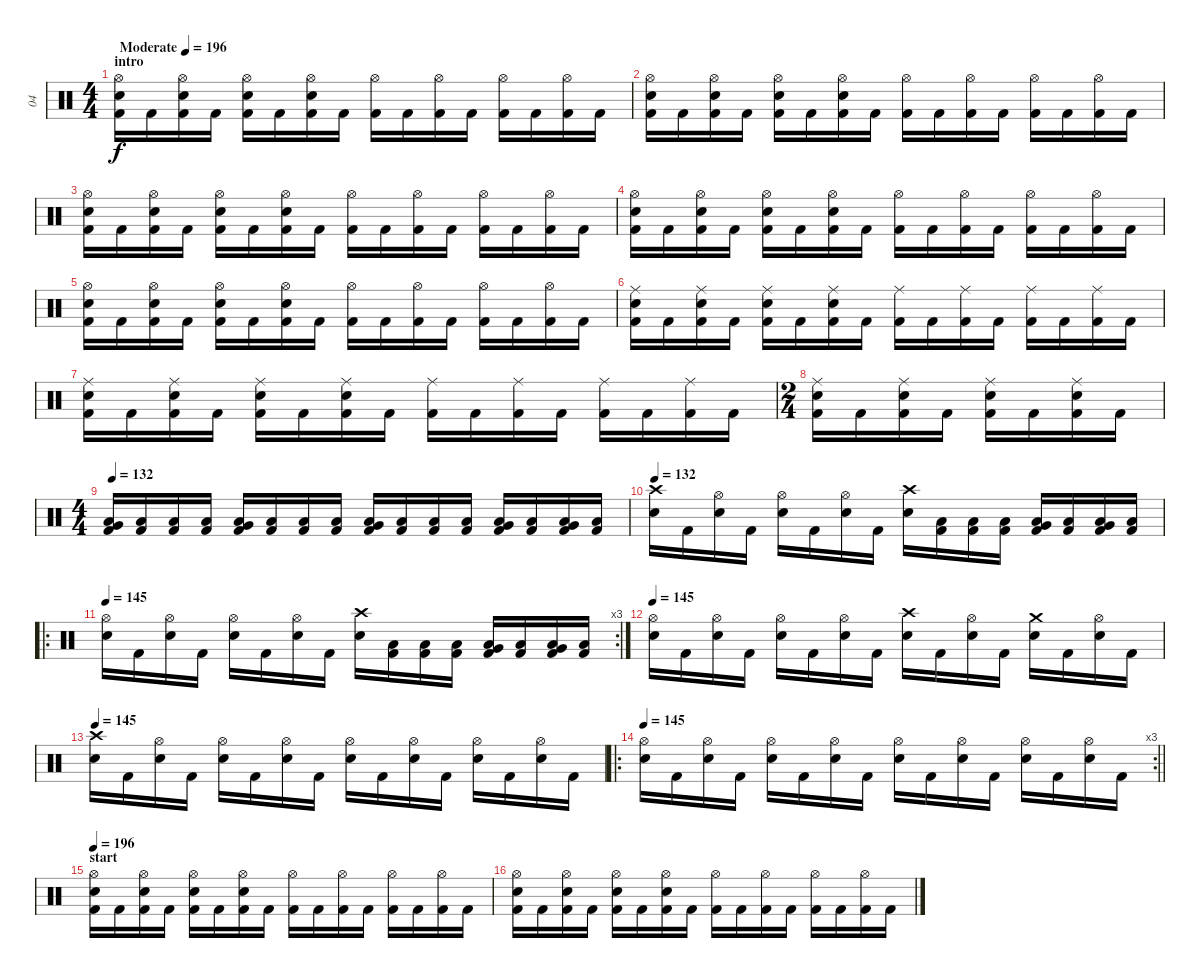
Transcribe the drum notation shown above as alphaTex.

\track ("04" "04") {instrument percussion}
\staff {score}
\articulation defaults
\ts (4 4)
\section ("" "intro")
\tempo (196 "Moderate")
\clef neutral
\ks c
("Hi-Hat (open)" "Kick (hit) 2" "Electric Snare (hit)").16{dy f} "Kick (hit) 2".16 ("Hi-Hat (open)" "Kick (hit) 2" "Electric Snare (hit)").16 "Kick (hit) 2".16 ("Hi-Hat (open)" "Kick (hit) 2" "Electric Snare (hit)").16 "Kick (hit) 2".16 ("Hi-Hat (open)" "Kick (hit) 2" "Electric Snare (hit)").16 "Kick (hit) 2".16 ("Hi-Hat (open)" "Kick (hit) 2").16 "Kick (hit) 2".16 ("Hi-Hat (open)" "Kick (hit) 2").16 "Kick (hit) 2".16 ("Hi-Hat (open)" "Kick (hit) 2").16 "Kick (hit) 2".16 ("Hi-Hat (open)" "Kick (hit) 2").16 "Kick (hit) 2".16 |
("Hi-Hat (open)" "Kick (hit) 2" "Electric Snare (hit)").16 "Kick (hit) 2".16 ("Hi-Hat (open)" "Kick (hit) 2" "Electric Snare (hit)").16 "Kick (hit) 2".16 ("Hi-Hat (open)" "Kick (hit) 2" "Electric Snare (hit)").16 "Kick (hit) 2".16 ("Hi-Hat (open)" "Kick (hit) 2" "Electric Snare (hit)").16 "Kick (hit) 2".16 ("Hi-Hat (open)" "Kick (hit) 2").16 "Kick (hit) 2".16 ("Hi-Hat (open)" "Kick (hit) 2").16 "Kick (hit) 2".16 ("Hi-Hat (open)" "Kick (hit) 2").16 "Kick (hit) 2".16 ("Hi-Hat (open)" "Kick (hit) 2").16 "Kick (hit) 2".16 |
("Hi-Hat (open)" "Kick (hit) 2" "Electric Snare (hit)").16 "Kick (hit) 2".16 ("Hi-Hat (open)" "Kick (hit) 2" "Electric Snare (hit)").16 "Kick (hit) 2".16 ("Hi-Hat (open)" "Kick (hit) 2" "Electric Snare (hit)").16 "Kick (hit) 2".16 ("Hi-Hat (open)" "Kick (hit) 2" "Electric Snare (hit)").16 "Kick (hit) 2".16 ("Hi-Hat (open)" "Kick (hit) 2").16 "Kick (hit) 2".16 ("Hi-Hat (open)" "Kick (hit) 2").16 "Kick (hit) 2".16 ("Hi-Hat (open)" "Kick (hit) 2").16 "Kick (hit) 2".16 ("Hi-Hat (open)" "Kick (hit) 2").16 "Kick (hit) 2".16 |
("Hi-Hat (open)" "Kick (hit) 2" "Electric Snare (hit)").16 "Kick (hit) 2".16 ("Hi-Hat (open)" "Kick (hit) 2" "Electric Snare (hit)").16 "Kick (hit) 2".16 ("Hi-Hat (open)" "Kick (hit) 2" "Electric Snare (hit)").16 "Kick (hit) 2".16 ("Hi-Hat (open)" "Kick (hit) 2" "Electric Snare (hit)").16 "Kick (hit) 2".16 ("Hi-Hat (open)" "Kick (hit) 2").16 "Kick (hit) 2".16 ("Hi-Hat (open)" "Kick (hit) 2").16 "Kick (hit) 2".16 ("Hi-Hat (open)" "Kick (hit) 2").16 "Kick (hit) 2".16 ("Hi-Hat (open)" "Kick (hit) 2").16 "Kick (hit) 2".16 |
("Hi-Hat (open)" "Kick (hit) 2" "Electric Snare (hit)").16 "Kick (hit) 2".16 ("Hi-Hat (open)" "Kick (hit) 2" "Electric Snare (hit)").16 "Kick (hit) 2".16 ("Hi-Hat (open)" "Kick (hit) 2" "Electric Snare (hit)").16 "Kick (hit) 2".16 ("Hi-Hat (open)" "Kick (hit) 2" "Electric Snare (hit)").16 "Kick (hit) 2".16 ("Hi-Hat (open)" "Kick (hit) 2").16 "Kick (hit) 2".16 ("Hi-Hat (open)" "Kick (hit) 2").16 "Kick (hit) 2".16 ("Hi-Hat (open)" "Kick (hit) 2").16 "Kick (hit) 2".16 ("Hi-Hat (open)" "Kick (hit) 2").16 "Kick (hit) 2".16 |
("Ride (middle)" "Kick (hit) 2" "Electric Snare (hit)").16 "Kick (hit) 2".16 ("Ride (middle)" "Kick (hit) 2" "Electric Snare (hit)").16 "Kick (hit) 2".16 ("Ride (middle)" "Kick (hit) 2" "Electric Snare (hit)").16 "Kick (hit) 2".16 ("Ride (middle)" "Kick (hit) 2" "Electric Snare (hit)").16 "Kick (hit) 2".16 ("Ride (middle)" "Kick (hit) 2").16 "Kick (hit) 2".16 ("Ride (middle)" "Kick (hit) 2").16 "Kick (hit) 2".16 ("Ride (middle)" "Kick (hit) 2").16 "Kick (hit) 2".16 ("Ride (middle)" "Kick (hit) 2").16 "Kick (hit) 2".16 |
("Ride (middle)" "Kick (hit) 2" "Electric Snare (hit)").16 "Kick (hit) 2".16 ("Ride (middle)" "Kick (hit) 2" "Electric Snare (hit)").16 "Kick (hit) 2".16 ("Ride (middle)" "Kick (hit) 2" "Electric Snare (hit)").16 "Kick (hit) 2".16 ("Ride (middle)" "Kick (hit) 2" "Electric Snare (hit)").16 "Kick (hit) 2".16 ("Ride (middle)" "Kick (hit) 2").16 "Kick (hit) 2".16 ("Ride (middle)" "Kick (hit) 2").16 "Kick (hit) 2".16 ("Ride (middle)" "Kick (hit) 2").16 "Kick (hit) 2".16 ("Ride (middle)" "Kick (hit) 2").16 "Kick (hit) 2".16 |
\ts (2 4)
("Ride (middle)" "Kick (hit) 2" "Electric Snare (hit)").16 "Kick (hit) 2".16 ("Ride (middle)" "Kick (hit) 2" "Electric Snare (hit)").16 "Kick (hit) 2".16 ("Ride (middle)" "Kick (hit) 2" "Electric Snare (hit)").16 "Kick (hit) 2".16 ("Ride (middle)" "Kick (hit) 2" "Electric Snare (hit)").16 "Kick (hit) 2".16 |
\ts (4 4)
\tempo 145
\tempo 132
("Very Low Tom (hit)" "Low Tom (hit)" "Kick (hit) 2").16 ("Low Tom (hit)" "Kick (hit) 2").16 ("Low Tom (hit)" "Kick (hit) 2").16 ("Low Tom (hit)" "Kick (hit) 2").16 ("Very Low Tom (hit)" "Low Tom (hit)" "Kick (hit) 2").16 ("Low Tom (hit)" "Kick (hit) 2").16 ("Low Tom (hit)" "Kick (hit) 2").16 ("Low Tom (hit)" "Kick (hit) 2").16 ("Very Low Tom (hit)" "Low Tom (hit)" "Kick (hit) 2").16 ("Low Tom (hit)" "Kick (hit) 2").16 ("Low Tom (hit)" "Kick (hit) 2").16 ("Low Tom (hit)" "Kick (hit) 2").16 ("Very Low Tom (hit)" "Low Tom (hit)" "Kick (hit) 2").16 ("Low Tom (hit)" "Kick (hit) 2").16 ("Very Low Tom (hit)" "Low Tom (hit)" "Kick (hit) 2").16 ("Low Tom (hit)" "Kick (hit) 2").16 |
\tempo 145
\tempo 132
("Crash high (hit)" "Electric Snare (hit)").16 "Kick (hit) 2".16 ("Hi-Hat (open)" "Electric Snare (hit)").16 "Kick (hit) 2".16 ("Hi-Hat (open)" "Electric Snare (hit)").16 "Kick (hit) 2".16 ("Hi-Hat (open)" "Electric Snare (hit)").16 "Kick (hit) 2".16 ("Crash high (hit)" "Electric Snare (hit)").16 ("Low Tom (hit)" "Kick (hit) 2").16 ("Low Tom (hit)" "Kick (hit) 2").16 ("Low Tom (hit)" "Kick (hit) 2").16 ("Very Low Tom (hit)" "Low Tom (hit)" "Kick (hit) 2").16 ("Low Tom (hit)" "Kick (hit) 2").16 ("Very Low Tom (hit)" "Low Tom (hit)" "Kick (hit) 2").16 ("Low Tom (hit)" "Kick (hit) 2").16 |
\ro
\rc 3
\tempo 145
("Hi-Hat (open)" "Electric Snare (hit)").16 "Kick (hit) 2".16 ("Hi-Hat (open)" "Electric Snare (hit)").16 "Kick (hit) 2".16 ("Hi-Hat (open)" "Electric Snare (hit)").16 "Kick (hit) 2".16 ("Hi-Hat (open)" "Electric Snare (hit)").16 "Kick (hit) 2".16 ("Crash high (hit)" "Electric Snare (hit)").16 ("Low Tom (hit)" "Kick (hit) 2").16 ("Low Tom (hit)" "Kick (hit) 2").16 ("Low Tom (hit)" "Kick (hit) 2").16 ("Very Low Tom (hit)" "Low Tom (hit)" "Kick (hit) 2").16 ("Low Tom (hit)" "Kick (hit) 2").16 ("Very Low Tom (hit)" "Low Tom (hit)" "Kick (hit) 2").16 ("Low Tom (hit)" "Kick (hit) 2").16 |
\tempo 145
("Hi-Hat (open)" "Electric Snare (hit)").16 "Kick (hit) 2".16 ("Hi-Hat (open)" "Electric Snare (hit)").16 "Kick (hit) 2".16 ("Hi-Hat (open)" "Electric Snare (hit)").16 "Kick (hit) 2".16 ("Hi-Hat (open)" "Electric Snare (hit)").16 "Kick (hit) 2".16 ("Crash high (hit)" "Electric Snare (hit)").16 "Kick (hit) 2".16 ("Hi-Hat (open)" "Electric Snare (hit)").16 "Kick (hit) 2".16 ("Crash medium (hit)" "Electric Snare (hit)").16 "Kick (hit) 2".16 ("Hi-Hat (open)" "Electric Snare (hit)").16 "Kick (hit) 2".16 |
\tempo 145
("Crash high (hit)" "Electric Snare (hit)").16 "Kick (hit) 2".16 ("Hi-Hat (open)" "Electric Snare (hit)").16 "Kick (hit) 2".16 ("Hi-Hat (open)" "Electric Snare (hit)").16 "Kick (hit) 2".16 ("Hi-Hat (open)" "Electric Snare (hit)").16 "Kick (hit) 2".16 ("Hi-Hat (open)" "Electric Snare (hit)").16 "Kick (hit) 2".16 ("Hi-Hat (open)" "Electric Snare (hit)").16 "Kick (hit) 2".16 ("Hi-Hat (open)" "Electric Snare (hit)").16 "Kick (hit) 2".16 ("Hi-Hat (open)" "Electric Snare (hit)").16 "Kick (hit) 2".16 |
\ro
\rc 3
\tempo 145
\barLineRight lightlight
("Hi-Hat (open)" "Electric Snare (hit)").16 "Kick (hit) 2".16 ("Hi-Hat (open)" "Electric Snare (hit)").16 "Kick (hit) 2".16 ("Hi-Hat (open)" "Electric Snare (hit)").16 "Kick (hit) 2".16 ("Hi-Hat (open)" "Electric Snare (hit)").16 "Kick (hit) 2".16 ("Hi-Hat (open)" "Electric Snare (hit)").16 "Kick (hit) 2".16 ("Hi-Hat (open)" "Electric Snare (hit)").16 "Kick (hit) 2".16 ("Hi-Hat (open)" "Electric Snare (hit)").16 "Kick (hit) 2".16 ("Hi-Hat (open)" "Electric Snare (hit)").16 "Kick (hit) 2".16 |
\section ("" "start")
\tempo 196
("Hi-Hat (open)" "Kick (hit) 2" "Electric Snare (hit)").16 "Kick (hit) 2".16 ("Hi-Hat (open)" "Kick (hit) 2" "Electric Snare (hit)").16 "Kick (hit) 2".16 ("Hi-Hat (open)" "Kick (hit) 2" "Electric Snare (hit)").16 "Kick (hit) 2".16 ("Hi-Hat (open)" "Kick (hit) 2" "Electric Snare (hit)").16 "Kick (hit) 2".16 ("Hi-Hat (open)" "Kick (hit) 2").16 "Kick (hit) 2".16 ("Hi-Hat (open)" "Kick (hit) 2").16 "Kick (hit) 2".16 ("Hi-Hat (open)" "Kick (hit) 2").16 "Kick (hit) 2".16 ("Hi-Hat (open)" "Kick (hit) 2").16 "Kick (hit) 2".16 |
("Hi-Hat (open)" "Kick (hit) 2" "Electric Snare (hit)").16 "Kick (hit) 2".16 ("Hi-Hat (open)" "Kick (hit) 2" "Electric Snare (hit)").16 "Kick (hit) 2".16 ("Hi-Hat (open)" "Kick (hit) 2" "Electric Snare (hit)").16 "Kick (hit) 2".16 ("Hi-Hat (open)" "Kick (hit) 2" "Electric Snare (hit)").16 "Kick (hit) 2".16 ("Hi-Hat (open)" "Kick (hit) 2").16 "Kick (hit) 2".16 ("Hi-Hat (open)" "Kick (hit) 2").16 "Kick (hit) 2".16 ("Hi-Hat (open)" "Kick (hit) 2").16 "Kick (hit) 2".16 ("Hi-Hat (open)" "Kick (hit) 2").16 "Kick (hit) 2".16
